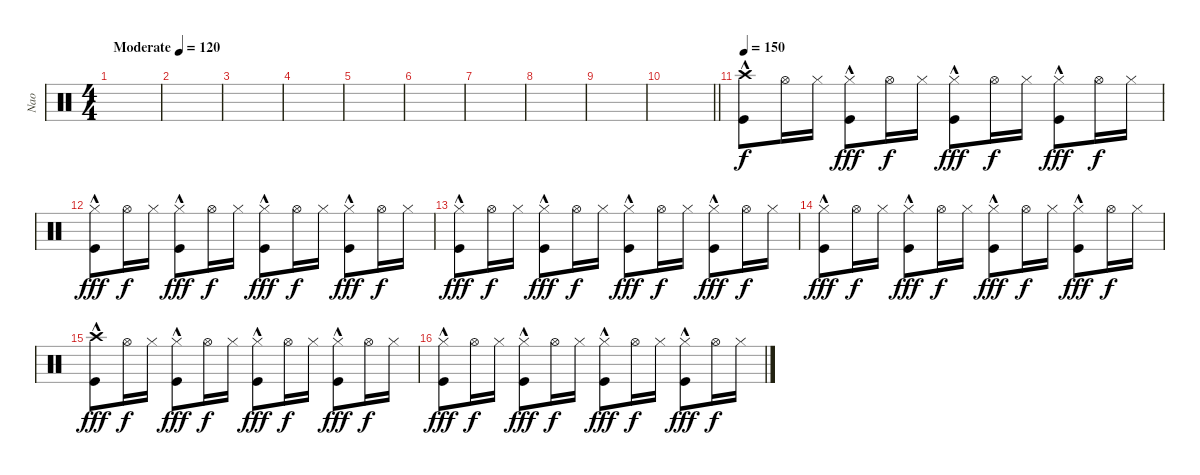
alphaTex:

\track ("Nao" "Nao") {instrument percussion}
\staff {score}
\articulation defaults
\ts (4 4)
\tempo (120 "Moderate")
\clef neutral
\ks c
|
|
|
|
|
|
|
|
|
\barLineRight lightlight
|
\section ("" "")
\tempo 150
("Crash high (hit)" "Kick (hit)"{hac}).8 "Hi-Hat (open)".16{dy f} "Hi-Hat (closed)".16 ("Hi-Hat (closed)" "Kick (hit)"{hac}).8{dy fff} "Hi-Hat (open)".16{dy f} "Hi-Hat (closed)".16 ("Hi-Hat (closed)" "Kick (hit)"{hac}).8{dy fff} "Hi-Hat (open)".16{dy f} "Hi-Hat (closed)".16 ("Hi-Hat (closed)" "Kick (hit)"{hac}).8{dy fff} "Hi-Hat (open)".16{dy f} "Hi-Hat (closed)".16 |
("Hi-Hat (closed)" "Kick (hit)"{hac}).8{dy fff} "Hi-Hat (open)".16{dy f} "Hi-Hat (closed)".16 ("Hi-Hat (closed)" "Kick (hit)"{hac}).8{dy fff} "Hi-Hat (open)".16{dy f} "Hi-Hat (closed)".16 ("Hi-Hat (closed)" "Kick (hit)"{hac}).8{dy fff} "Hi-Hat (open)".16{dy f} "Hi-Hat (closed)".16 ("Hi-Hat (closed)" "Kick (hit)"{hac}).8{dy fff} "Hi-Hat (open)".16{dy f} "Hi-Hat (closed)".16 |
("Hi-Hat (closed)" "Kick (hit)"{hac}).8{dy fff} "Hi-Hat (open)".16{dy f} "Hi-Hat (closed)".16 ("Hi-Hat (closed)" "Kick (hit)"{hac}).8{dy fff} "Hi-Hat (open)".16{dy f} "Hi-Hat (closed)".16 ("Hi-Hat (closed)" "Kick (hit)"{hac}).8{dy fff} "Hi-Hat (open)".16{dy f} "Hi-Hat (closed)".16 ("Hi-Hat (closed)" "Kick (hit)"{hac}).8{dy fff} "Hi-Hat (open)".16{dy f} "Hi-Hat (closed)".16 |
("Hi-Hat (closed)" "Kick (hit)"{hac}).8{dy fff} "Hi-Hat (open)".16{dy f} "Hi-Hat (closed)".16 ("Hi-Hat (closed)" "Kick (hit)"{hac}).8{dy fff} "Hi-Hat (open)".16{dy f} "Hi-Hat (closed)".16 ("Hi-Hat (closed)" "Kick (hit)"{hac}).8{dy fff} "Hi-Hat (open)".16{dy f} "Hi-Hat (closed)".16 ("Hi-Hat (closed)" "Kick (hit)"{hac}).8{dy fff} "Hi-Hat (open)".16{dy f} "Hi-Hat (closed)".16 |
("Crash high (hit)" "Kick (hit)"{hac}).8{dy fff} "Hi-Hat (open)".16{dy f} "Hi-Hat (closed)".16 ("Hi-Hat (closed)" "Kick (hit)"{hac}).8{dy fff} "Hi-Hat (open)".16{dy f} "Hi-Hat (closed)".16 ("Hi-Hat (closed)" "Kick (hit)"{hac}).8{dy fff} "Hi-Hat (open)".16{dy f} "Hi-Hat (closed)".16 ("Hi-Hat (closed)" "Kick (hit)"{hac}).8{dy fff} "Hi-Hat (open)".16{dy f} "Hi-Hat (closed)".16 |
("Hi-Hat (closed)" "Kick (hit)"{hac}).8{dy fff} "Hi-Hat (open)".16{dy f} "Hi-Hat (closed)".16 ("Hi-Hat (closed)" "Kick (hit)"{hac}).8{dy fff} "Hi-Hat (open)".16{dy f} "Hi-Hat (closed)".16 ("Hi-Hat (closed)" "Kick (hit)"{hac}).8{dy fff} "Hi-Hat (open)".16{dy f} "Hi-Hat (closed)".16 ("Hi-Hat (closed)" "Kick (hit)"{hac}).8{dy fff} "Hi-Hat (open)".16{dy f} "Hi-Hat (closed)".16
